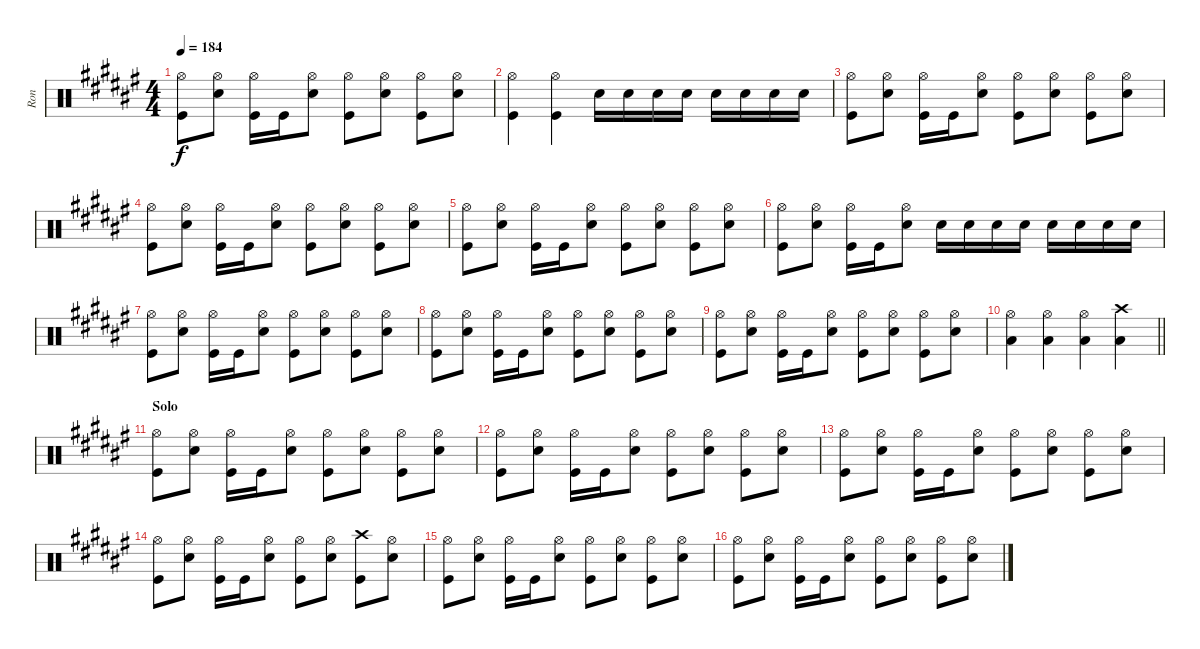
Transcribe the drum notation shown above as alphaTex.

\track ("Ron" "Ron") {instrument percussion}
\staff {score}
\articulation defaults
\ts (4 4)
\tempo 184
\clef neutral
\ks f#
("Kick (hit)" "Hi-Hat (open)").8{dy f} ("Electric Snare (hit)" "Hi-Hat (open)").8 ("Kick (hit)" "Hi-Hat (open)").16 "Kick (hit)".16 ("Electric Snare (hit)" "Hi-Hat (open)").8 ("Kick (hit)" "Hi-Hat (open)").8 ("Electric Snare (hit)" "Hi-Hat (open)").8 ("Kick (hit)" "Hi-Hat (open)").8 ("Electric Snare (hit)" "Hi-Hat (open)").8 |
("Kick (hit)" "Hi-Hat (open)").4 ("Kick (hit)" "Hi-Hat (open)").4 "Electric Snare (hit)".16 "Electric Snare (hit)".16 "Electric Snare (hit)".16 "Electric Snare (hit)".16 "Electric Snare (hit)".16 "Electric Snare (hit)".16 "Electric Snare (hit)".16 "Electric Snare (hit)".16 |
("Kick (hit)" "Hi-Hat (open)").8 ("Electric Snare (hit)" "Hi-Hat (open)").8 ("Kick (hit)" "Hi-Hat (open)").16 "Kick (hit)".16 ("Electric Snare (hit)" "Hi-Hat (open)").8 ("Kick (hit)" "Hi-Hat (open)").8 ("Electric Snare (hit)" "Hi-Hat (open)").8 ("Kick (hit)" "Hi-Hat (open)").8 ("Electric Snare (hit)" "Hi-Hat (open)").8 |
("Kick (hit)" "Hi-Hat (open)").8 ("Electric Snare (hit)" "Hi-Hat (open)").8 ("Kick (hit)" "Hi-Hat (open)").16 "Kick (hit)".16 ("Electric Snare (hit)" "Hi-Hat (open)").8 ("Kick (hit)" "Hi-Hat (open)").8 ("Electric Snare (hit)" "Hi-Hat (open)").8 ("Kick (hit)" "Hi-Hat (open)").8 ("Electric Snare (hit)" "Hi-Hat (open)").8 |
("Kick (hit)" "Hi-Hat (open)").8 ("Electric Snare (hit)" "Hi-Hat (open)").8 ("Kick (hit)" "Hi-Hat (open)").16 "Kick (hit)".16 ("Electric Snare (hit)" "Hi-Hat (open)").8 ("Kick (hit)" "Hi-Hat (open)").8 ("Electric Snare (hit)" "Hi-Hat (open)").8 ("Kick (hit)" "Hi-Hat (open)").8 ("Electric Snare (hit)" "Hi-Hat (open)").8 |
("Kick (hit)" "Hi-Hat (open)").8 ("Electric Snare (hit)" "Hi-Hat (open)").8 ("Kick (hit)" "Hi-Hat (open)").16 "Kick (hit)".16 ("Electric Snare (hit)" "Hi-Hat (open)").8 "Electric Snare (hit)".16 "Electric Snare (hit)".16 "Electric Snare (hit)".16 "Electric Snare (hit)".16 "Electric Snare (hit)".16 "Electric Snare (hit)".16 "Electric Snare (hit)".16 "Electric Snare (hit)".16 |
("Kick (hit)" "Hi-Hat (open)").8 ("Electric Snare (hit)" "Hi-Hat (open)").8 ("Kick (hit)" "Hi-Hat (open)").16 "Kick (hit)".16 ("Electric Snare (hit)" "Hi-Hat (open)").8 ("Kick (hit)" "Hi-Hat (open)").8 ("Electric Snare (hit)" "Hi-Hat (open)").8 ("Kick (hit)" "Hi-Hat (open)").8 ("Electric Snare (hit)" "Hi-Hat (open)").8 |
("Kick (hit)" "Hi-Hat (open)").8 ("Electric Snare (hit)" "Hi-Hat (open)").8 ("Kick (hit)" "Hi-Hat (open)").16 "Kick (hit)".16 ("Electric Snare (hit)" "Hi-Hat (open)").8 ("Kick (hit)" "Hi-Hat (open)").8 ("Electric Snare (hit)" "Hi-Hat (open)").8 ("Kick (hit)" "Hi-Hat (open)").8 ("Electric Snare (hit)" "Hi-Hat (open)").8 |
("Kick (hit)" "Hi-Hat (open)").8 ("Electric Snare (hit)" "Hi-Hat (open)").8 ("Kick (hit)" "Hi-Hat (open)").16 "Kick (hit)".16 ("Electric Snare (hit)" "Hi-Hat (open)").8 ("Kick (hit)" "Hi-Hat (open)").8 ("Electric Snare (hit)" "Hi-Hat (open)").8 ("Kick (hit)" "Hi-Hat (open)").8 ("Electric Snare (hit)" "Hi-Hat (open)").8 |
\barLineRight lightlight
("Hi-Hat (open)" "Low Tom (hit)").4 ("Hi-Hat (open)" "Low Tom (hit)").4 ("Hi-Hat (open)" "Low Tom (hit)").4 ("Crash high (hit)" "Low Tom (hit)").4 |
\section ("" "Solo")
("Kick (hit)" "Hi-Hat (open)").8 ("Electric Snare (hit)" "Hi-Hat (open)").8 ("Kick (hit)" "Hi-Hat (open)").16 "Kick (hit)".16 ("Electric Snare (hit)" "Hi-Hat (open)").8 ("Kick (hit)" "Hi-Hat (open)").8 ("Electric Snare (hit)" "Hi-Hat (open)").8 ("Kick (hit)" "Hi-Hat (open)").8 ("Electric Snare (hit)" "Hi-Hat (open)").8 |
("Kick (hit)" "Hi-Hat (open)").8 ("Electric Snare (hit)" "Hi-Hat (open)").8 ("Kick (hit)" "Hi-Hat (open)").16 "Kick (hit)".16 ("Electric Snare (hit)" "Hi-Hat (open)").8 ("Kick (hit)" "Hi-Hat (open)").8 ("Electric Snare (hit)" "Hi-Hat (open)").8 ("Kick (hit)" "Hi-Hat (open)").8 ("Electric Snare (hit)" "Hi-Hat (open)").8 |
("Kick (hit)" "Hi-Hat (open)").8 ("Electric Snare (hit)" "Hi-Hat (open)").8 ("Kick (hit)" "Hi-Hat (open)").16 "Kick (hit)".16 ("Electric Snare (hit)" "Hi-Hat (open)").8 ("Kick (hit)" "Hi-Hat (open)").8 ("Electric Snare (hit)" "Hi-Hat (open)").8 ("Kick (hit)" "Hi-Hat (open)").8 ("Electric Snare (hit)" "Hi-Hat (open)").8 |
("Kick (hit)" "Hi-Hat (open)").8 ("Electric Snare (hit)" "Hi-Hat (open)").8 ("Kick (hit)" "Hi-Hat (open)").16 "Kick (hit)".16 ("Electric Snare (hit)" "Hi-Hat (open)").8 ("Kick (hit)" "Hi-Hat (open)").8 ("Electric Snare (hit)" "Hi-Hat (open)").8 ("Kick (hit)" "Crash high (hit)").8 ("Electric Snare (hit)" "Hi-Hat (open)").8 |
("Kick (hit)" "Hi-Hat (open)").8 ("Electric Snare (hit)" "Hi-Hat (open)").8 ("Kick (hit)" "Hi-Hat (open)").16 "Kick (hit)".16 ("Electric Snare (hit)" "Hi-Hat (open)").8 ("Kick (hit)" "Hi-Hat (open)").8 ("Electric Snare (hit)" "Hi-Hat (open)").8 ("Kick (hit)" "Hi-Hat (open)").8 ("Electric Snare (hit)" "Hi-Hat (open)").8 |
("Kick (hit)" "Hi-Hat (open)").8 ("Electric Snare (hit)" "Hi-Hat (open)").8 ("Kick (hit)" "Hi-Hat (open)").16 "Kick (hit)".16 ("Electric Snare (hit)" "Hi-Hat (open)").8 ("Kick (hit)" "Hi-Hat (open)").8 ("Electric Snare (hit)" "Hi-Hat (open)").8 ("Kick (hit)" "Hi-Hat (open)").8 ("Electric Snare (hit)" "Hi-Hat (open)").8
